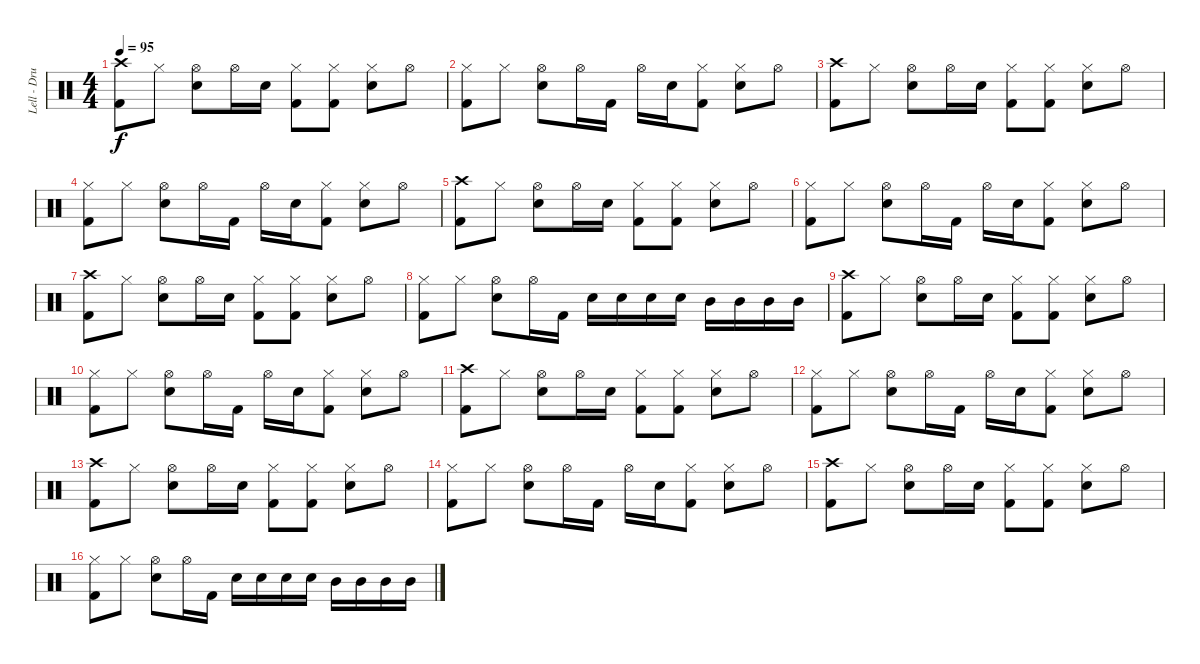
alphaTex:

\track ("Lell - Drums" "Lell - Dru") {instrument percussion}
\staff {score}
\articulation defaults
\ts (4 4)
\tempo 95
\clef neutral
\ks c
("Crash high (hit)" "Kick (hit) 2").8{dy f} "Hi-Hat (closed)".8 ("Hi-Hat (open)" "Snare (hit) 2").8 "Hi-Hat (open)".16 "Snare (hit) 2".16 ("Hi-Hat (closed)" "Kick (hit) 2").8 ("Hi-Hat (closed)" "Kick (hit) 2").8 ("Hi-Hat (closed)" "Snare (hit) 2").8 "Hi-Hat (open)".8 |
("Hi-Hat (closed)" "Kick (hit) 2").8 "Hi-Hat (closed)".8 ("Hi-Hat (open)" "Snare (hit) 2").8 "Hi-Hat (open)".16 "Kick (hit) 2".16 "Hi-Hat (open)".16 "Snare (hit) 2".16 ("Hi-Hat (closed)" "Kick (hit) 2").8 ("Hi-Hat (closed)" "Snare (hit) 2").8 "Hi-Hat (open)".8 |
("Crash high (hit)" "Kick (hit) 2").8 "Hi-Hat (closed)".8 ("Hi-Hat (open)" "Snare (hit) 2").8 "Hi-Hat (open)".16 "Snare (hit) 2".16 ("Hi-Hat (closed)" "Kick (hit) 2").8 ("Hi-Hat (closed)" "Kick (hit) 2").8 ("Hi-Hat (closed)" "Snare (hit) 2").8 "Hi-Hat (open)".8 |
("Hi-Hat (closed)" "Kick (hit) 2").8 "Hi-Hat (closed)".8 ("Hi-Hat (open)" "Snare (hit) 2").8 "Hi-Hat (open)".16 "Kick (hit) 2".16 "Hi-Hat (open)".16 "Snare (hit) 2".16 ("Hi-Hat (closed)" "Kick (hit) 2").8 ("Hi-Hat (closed)" "Snare (hit) 2").8 "Hi-Hat (open)".8 |
("Crash high (hit)" "Kick (hit) 2").8 "Hi-Hat (closed)".8 ("Hi-Hat (open)" "Snare (hit) 2").8 "Hi-Hat (open)".16 "Snare (hit) 2".16 ("Hi-Hat (closed)" "Kick (hit) 2").8 ("Hi-Hat (closed)" "Kick (hit) 2").8 ("Hi-Hat (closed)" "Snare (hit) 2").8 "Hi-Hat (open)".8 |
("Hi-Hat (closed)" "Kick (hit) 2").8 "Hi-Hat (closed)".8 ("Hi-Hat (open)" "Snare (hit) 2").8 "Hi-Hat (open)".16 "Kick (hit) 2".16 "Hi-Hat (open)".16 "Snare (hit) 2".16 ("Hi-Hat (closed)" "Kick (hit) 2").8 ("Hi-Hat (closed)" "Snare (hit) 2").8 "Hi-Hat (open)".8 |
("Crash high (hit)" "Kick (hit) 2").8 "Hi-Hat (closed)".8 ("Hi-Hat (open)" "Snare (hit) 2").8 "Hi-Hat (open)".16 "Snare (hit) 2".16 ("Hi-Hat (closed)" "Kick (hit) 2").8 ("Hi-Hat (closed)" "Kick (hit) 2").8 ("Hi-Hat (closed)" "Snare (hit) 2").8 "Hi-Hat (open)".8 |
("Hi-Hat (closed)" "Kick (hit) 2").8 "Hi-Hat (closed)".8 ("Hi-Hat (open)" "Snare (hit) 2").8 "Hi-Hat (open)".16 "Kick (hit) 2".16 "Snare (hit) 2".16 "Snare (hit) 2".16 "Snare (hit) 2".16 "Snare (hit) 2".16 "Mid Tom (hit)".16 "Mid Tom (hit)".16 "Mid Tom (hit)".16 "Mid Tom (hit)".16 |
("Crash high (hit)" "Kick (hit) 2").8 "Hi-Hat (closed)".8 ("Hi-Hat (open)" "Snare (hit) 2").8 "Hi-Hat (open)".16 "Snare (hit) 2".16 ("Hi-Hat (closed)" "Kick (hit) 2").8 ("Hi-Hat (closed)" "Kick (hit) 2").8 ("Hi-Hat (closed)" "Snare (hit) 2").8 "Hi-Hat (open)".8 |
("Hi-Hat (closed)" "Kick (hit) 2").8 "Hi-Hat (closed)".8 ("Hi-Hat (open)" "Snare (hit) 2").8 "Hi-Hat (open)".16 "Kick (hit) 2".16 "Hi-Hat (open)".16 "Snare (hit) 2".16 ("Hi-Hat (closed)" "Kick (hit) 2").8 ("Hi-Hat (closed)" "Snare (hit) 2").8 "Hi-Hat (open)".8 |
("Crash high (hit)" "Kick (hit) 2").8 "Hi-Hat (closed)".8 ("Hi-Hat (open)" "Snare (hit) 2").8 "Hi-Hat (open)".16 "Snare (hit) 2".16 ("Hi-Hat (closed)" "Kick (hit) 2").8 ("Hi-Hat (closed)" "Kick (hit) 2").8 ("Hi-Hat (closed)" "Snare (hit) 2").8 "Hi-Hat (open)".8 |
("Hi-Hat (closed)" "Kick (hit) 2").8 "Hi-Hat (closed)".8 ("Hi-Hat (open)" "Snare (hit) 2").8 "Hi-Hat (open)".16 "Kick (hit) 2".16 "Hi-Hat (open)".16 "Snare (hit) 2".16 ("Hi-Hat (closed)" "Kick (hit) 2").8 ("Hi-Hat (closed)" "Snare (hit) 2").8 "Hi-Hat (open)".8 |
("Crash high (hit)" "Kick (hit) 2").8 "Hi-Hat (closed)".8 ("Hi-Hat (open)" "Snare (hit) 2").8 "Hi-Hat (open)".16 "Snare (hit) 2".16 ("Hi-Hat (closed)" "Kick (hit) 2").8 ("Hi-Hat (closed)" "Kick (hit) 2").8 ("Hi-Hat (closed)" "Snare (hit) 2").8 "Hi-Hat (open)".8 |
("Hi-Hat (closed)" "Kick (hit) 2").8 "Hi-Hat (closed)".8 ("Hi-Hat (open)" "Snare (hit) 2").8 "Hi-Hat (open)".16 "Kick (hit) 2".16 "Hi-Hat (open)".16 "Snare (hit) 2".16 ("Hi-Hat (closed)" "Kick (hit) 2").8 ("Hi-Hat (closed)" "Snare (hit) 2").8 "Hi-Hat (open)".8 |
("Crash high (hit)" "Kick (hit) 2").8 "Hi-Hat (closed)".8 ("Hi-Hat (open)" "Snare (hit) 2").8 "Hi-Hat (open)".16 "Snare (hit) 2".16 ("Hi-Hat (closed)" "Kick (hit) 2").8 ("Hi-Hat (closed)" "Kick (hit) 2").8 ("Hi-Hat (closed)" "Snare (hit) 2").8 "Hi-Hat (open)".8 |
("Hi-Hat (closed)" "Kick (hit) 2").8 "Hi-Hat (closed)".8 ("Hi-Hat (open)" "Snare (hit) 2").8 "Hi-Hat (open)".16 "Kick (hit) 2".16 "Snare (hit) 2".16 "Snare (hit) 2".16 "Snare (hit) 2".16 "Snare (hit) 2".16 "Mid Tom (hit)".16 "Mid Tom (hit)".16 "Mid Tom (hit)".16 "Mid Tom (hit)".16
